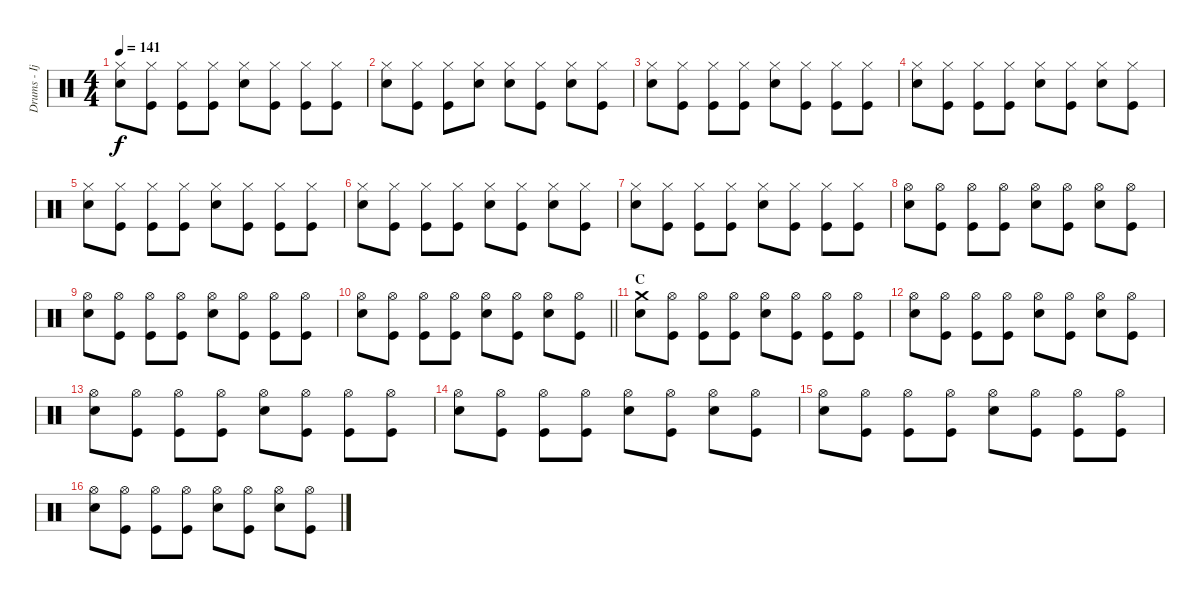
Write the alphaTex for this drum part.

\track ("Drums - Ijichi" "Drums - Ij") {instrument percussion}
\staff {score}
\articulation defaults
\ts (4 4)
\tempo 141
\clef neutral
\ks c
("Hi-Hat (closed)" "Electric Snare (hit)").8{dy f} ("Hi-Hat (closed)" "Kick (hit)").8 ("Hi-Hat (closed)" "Kick (hit)").8 ("Hi-Hat (closed)" "Kick (hit)").8 ("Hi-Hat (closed)" "Electric Snare (hit)").8 ("Hi-Hat (closed)" "Kick (hit)").8 ("Hi-Hat (closed)" "Kick (hit)").8 ("Hi-Hat (closed)" "Kick (hit)").8 |
("Hi-Hat (closed)" "Electric Snare (hit)").8 ("Hi-Hat (closed)" "Kick (hit)").8 ("Hi-Hat (closed)" "Kick (hit)").8 ("Hi-Hat (closed)" "Electric Snare (hit)").8 ("Hi-Hat (closed)" "Electric Snare (hit)").8 ("Hi-Hat (closed)" "Kick (hit)").8 ("Hi-Hat (closed)" "Electric Snare (hit)").8 ("Hi-Hat (closed)" "Kick (hit)").8 |
("Hi-Hat (closed)" "Electric Snare (hit)").8 ("Hi-Hat (closed)" "Kick (hit)").8 ("Hi-Hat (closed)" "Kick (hit)").8 ("Hi-Hat (closed)" "Kick (hit)").8 ("Hi-Hat (closed)" "Electric Snare (hit)").8 ("Hi-Hat (closed)" "Kick (hit)").8 ("Hi-Hat (closed)" "Kick (hit)").8 ("Hi-Hat (closed)" "Kick (hit)").8 |
("Hi-Hat (closed)" "Electric Snare (hit)").8 ("Hi-Hat (closed)" "Kick (hit)").8 ("Hi-Hat (closed)" "Kick (hit)").8 ("Hi-Hat (closed)" "Kick (hit)").8 ("Hi-Hat (closed)" "Electric Snare (hit)").8 ("Hi-Hat (closed)" "Kick (hit)").8 ("Hi-Hat (closed)" "Electric Snare (hit)").8 ("Hi-Hat (closed)" "Kick (hit)").8 |
("Hi-Hat (closed)" "Electric Snare (hit)").8 ("Hi-Hat (closed)" "Kick (hit)").8 ("Hi-Hat (closed)" "Kick (hit)").8 ("Hi-Hat (closed)" "Kick (hit)").8 ("Hi-Hat (closed)" "Electric Snare (hit)").8 ("Hi-Hat (closed)" "Kick (hit)").8 ("Hi-Hat (closed)" "Kick (hit)").8 ("Hi-Hat (closed)" "Kick (hit)").8 |
("Hi-Hat (closed)" "Electric Snare (hit)").8 ("Hi-Hat (closed)" "Kick (hit)").8 ("Hi-Hat (closed)" "Kick (hit)").8 ("Hi-Hat (closed)" "Kick (hit)").8 ("Hi-Hat (closed)" "Electric Snare (hit)").8 ("Hi-Hat (closed)" "Kick (hit)").8 ("Hi-Hat (closed)" "Electric Snare (hit)").8 ("Hi-Hat (closed)" "Kick (hit)").8 |
("Hi-Hat (closed)" "Electric Snare (hit)").8 ("Hi-Hat (closed)" "Kick (hit)").8 ("Hi-Hat (closed)" "Kick (hit)").8 ("Hi-Hat (closed)" "Kick (hit)").8 ("Hi-Hat (closed)" "Electric Snare (hit)").8 ("Hi-Hat (closed)" "Kick (hit)").8 ("Hi-Hat (closed)" "Kick (hit)").8 ("Hi-Hat (closed)" "Kick (hit)").8 |
("Hi-Hat (open)" "Electric Snare (hit)").8 ("Hi-Hat (open)" "Kick (hit)").8 ("Hi-Hat (open)" "Kick (hit)").8 ("Hi-Hat (open)" "Kick (hit)").8 ("Hi-Hat (open)" "Electric Snare (hit)").8 ("Hi-Hat (open)" "Kick (hit)").8 ("Hi-Hat (open)" "Electric Snare (hit)").8 ("Hi-Hat (open)" "Kick (hit)").8 |
("Hi-Hat (open)" "Electric Snare (hit)").8 ("Hi-Hat (open)" "Kick (hit)").8 ("Hi-Hat (open)" "Kick (hit)").8 ("Hi-Hat (open)" "Kick (hit)").8 ("Hi-Hat (open)" "Electric Snare (hit)").8 ("Hi-Hat (open)" "Kick (hit)").8 ("Hi-Hat (open)" "Kick (hit)").8 ("Hi-Hat (open)" "Kick (hit)").8 |
\barLineRight lightlight
("Hi-Hat (open)" "Electric Snare (hit)").8 ("Hi-Hat (open)" "Kick (hit)").8 ("Hi-Hat (open)" "Kick (hit)").8 ("Hi-Hat (open)" "Kick (hit)").8 ("Hi-Hat (open)" "Electric Snare (hit)").8 ("Hi-Hat (open)" "Kick (hit)").8 ("Hi-Hat (open)" "Electric Snare (hit)").8 ("Hi-Hat (open)" "Kick (hit)").8 |
\section ("" "C")
("Crash medium (hit)" "Electric Snare (hit)").8 ("Hi-Hat (open)" "Kick (hit)").8 ("Hi-Hat (open)" "Kick (hit)").8 ("Hi-Hat (open)" "Kick (hit)").8 ("Hi-Hat (open)" "Electric Snare (hit)").8 ("Hi-Hat (open)" "Kick (hit)").8 ("Hi-Hat (open)" "Kick (hit)").8 ("Hi-Hat (open)" "Kick (hit)").8 |
("Hi-Hat (open)" "Electric Snare (hit)").8 ("Hi-Hat (open)" "Kick (hit)").8 ("Hi-Hat (open)" "Kick (hit)").8 ("Hi-Hat (open)" "Kick (hit)").8 ("Hi-Hat (open)" "Electric Snare (hit)").8 ("Hi-Hat (open)" "Kick (hit)").8 ("Hi-Hat (open)" "Electric Snare (hit)").8 ("Hi-Hat (open)" "Kick (hit)").8 |
("Hi-Hat (open)" "Electric Snare (hit)").8 ("Hi-Hat (open)" "Kick (hit)").8 ("Hi-Hat (open)" "Kick (hit)").8 ("Hi-Hat (open)" "Kick (hit)").8 ("Hi-Hat (open)" "Electric Snare (hit)").8 ("Hi-Hat (open)" "Kick (hit)").8 ("Hi-Hat (open)" "Kick (hit)").8 ("Hi-Hat (open)" "Kick (hit)").8 |
("Hi-Hat (open)" "Electric Snare (hit)").8 ("Hi-Hat (open)" "Kick (hit)").8 ("Hi-Hat (open)" "Kick (hit)").8 ("Hi-Hat (open)" "Kick (hit)").8 ("Hi-Hat (open)" "Electric Snare (hit)").8 ("Hi-Hat (open)" "Kick (hit)").8 ("Hi-Hat (open)" "Electric Snare (hit)").8 ("Hi-Hat (open)" "Kick (hit)").8 |
("Hi-Hat (open)" "Electric Snare (hit)").8 ("Hi-Hat (open)" "Kick (hit)").8 ("Hi-Hat (open)" "Kick (hit)").8 ("Hi-Hat (open)" "Kick (hit)").8 ("Hi-Hat (open)" "Electric Snare (hit)").8 ("Hi-Hat (open)" "Kick (hit)").8 ("Hi-Hat (open)" "Kick (hit)").8 ("Hi-Hat (open)" "Kick (hit)").8 |
("Hi-Hat (open)" "Electric Snare (hit)").8 ("Hi-Hat (open)" "Kick (hit)").8 ("Hi-Hat (open)" "Kick (hit)").8 ("Hi-Hat (open)" "Kick (hit)").8 ("Hi-Hat (open)" "Electric Snare (hit)").8 ("Hi-Hat (open)" "Kick (hit)").8 ("Hi-Hat (open)" "Electric Snare (hit)").8 ("Hi-Hat (open)" "Kick (hit)").8
